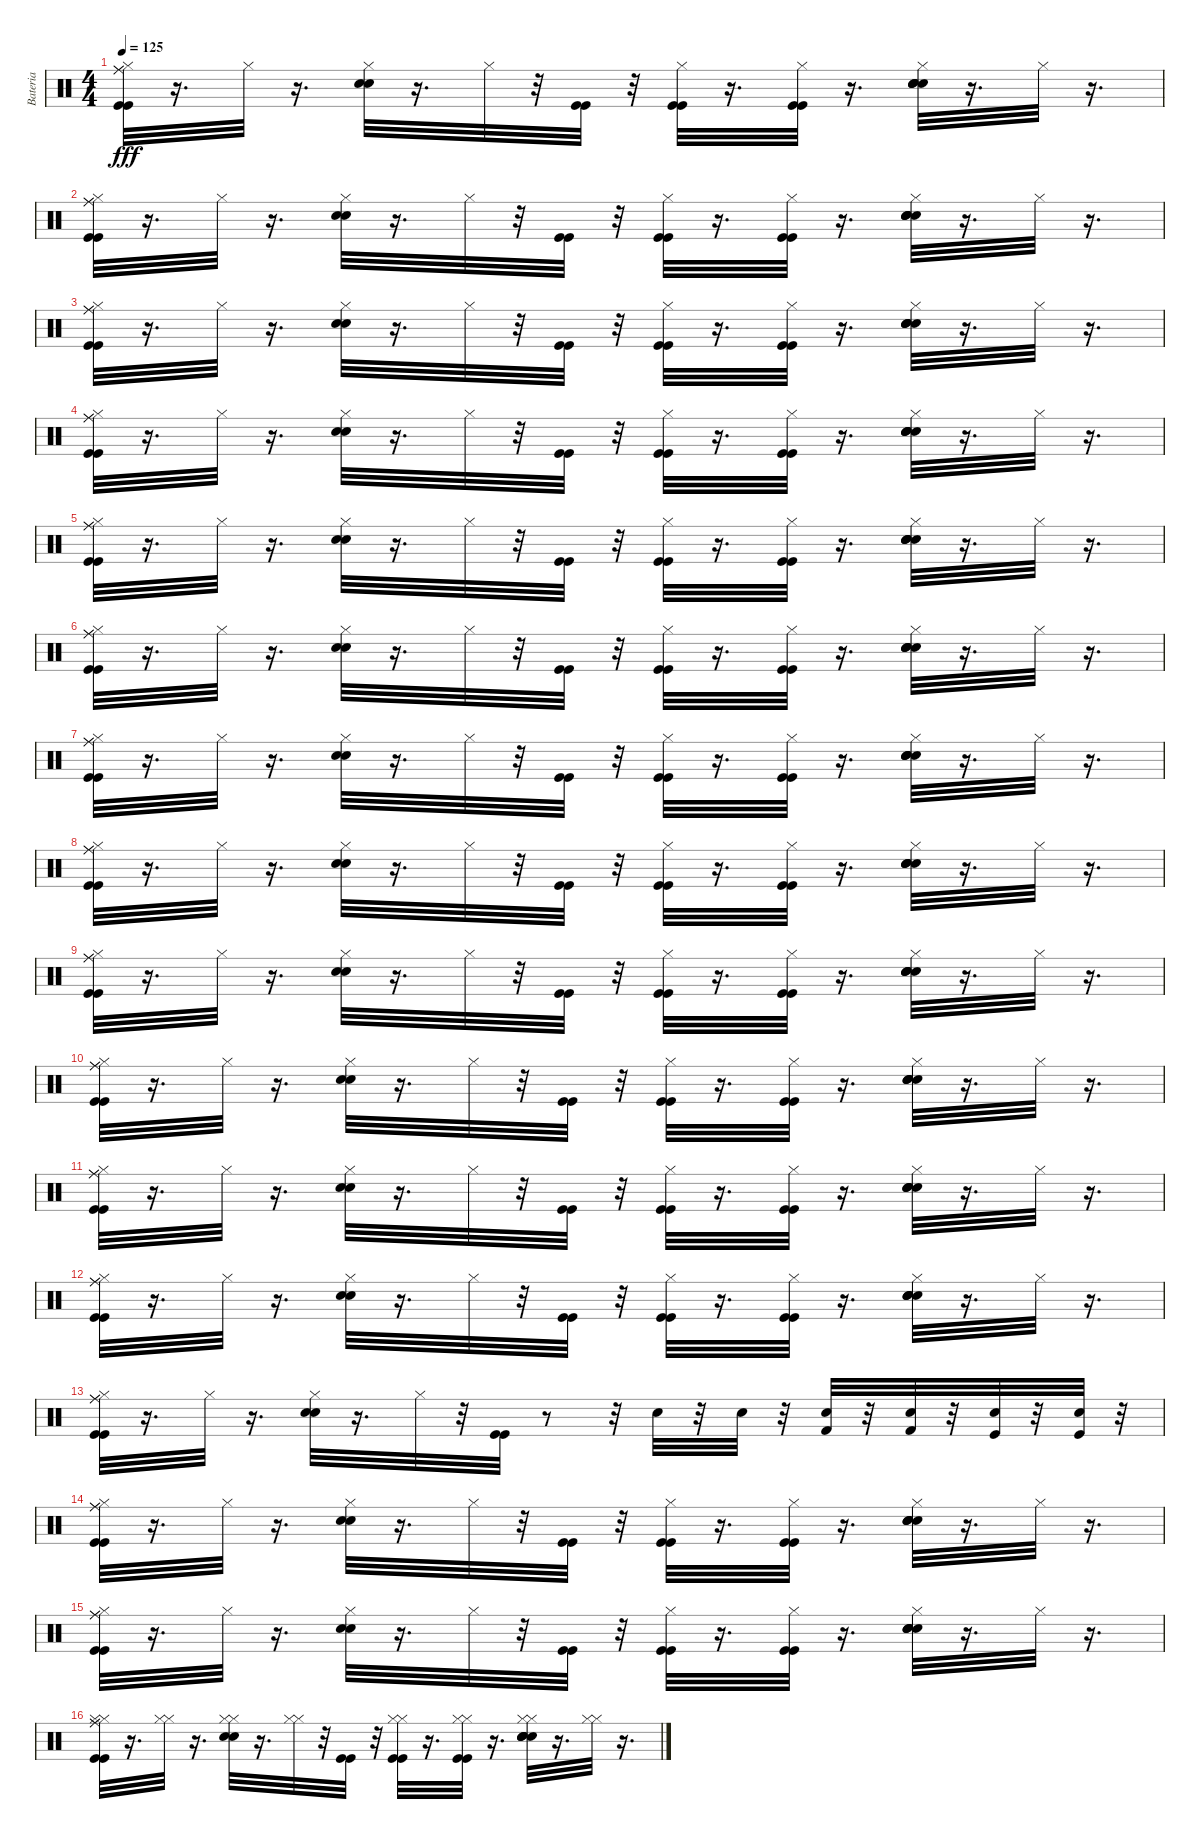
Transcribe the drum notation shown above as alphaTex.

\track ("Bateria" "Bateria") {instrument percussion}
\staff {score}
\articulation defaults
\ts (4 4)
\tempo 125
\clef neutral
\ks c
("Hi-Hat (closed)" "Kick (hit)" "Ride (middle)" "Kick (hit)" "Ride (middle)").32{dy fff} r.16{d} "Hi-Hat (closed)".32 r.16{d} ("Snare (hit) 2" "Electric Snare (hit)" "Hi-Hat (closed)").32 r.16{d} "Hi-Hat (closed)".32 r.32 ("Kick (hit)" "Kick (hit)").32 r.32 ("Hi-Hat (closed)" "Kick (hit)" "Kick (hit)").32 r.16{d} ("Hi-Hat (closed)" "Kick (hit)" "Kick (hit)").32 r.16{d} ("Hi-Hat (closed)" "Snare (hit) 2" "Electric Snare (hit)" "Snare (hit) 2" "Electric Snare (hit)").32 r.16{d} "Hi-Hat (closed)".32 r.16{d} |
("Hi-Hat (closed)" "Kick (hit)" "Ride (middle)" "Kick (hit)" "Ride (middle)").32 r.16{d} "Hi-Hat (closed)".32 r.16{d} ("Snare (hit) 2" "Electric Snare (hit)" "Hi-Hat (closed)").32 r.16{d} "Hi-Hat (closed)".32 r.32 ("Kick (hit)" "Kick (hit)").32 r.32 ("Hi-Hat (closed)" "Kick (hit)" "Kick (hit)").32 r.16{d} ("Hi-Hat (closed)" "Kick (hit)" "Kick (hit)").32 r.16{d} ("Hi-Hat (closed)" "Snare (hit) 2" "Electric Snare (hit)" "Snare (hit) 2" "Electric Snare (hit)").32 r.16{d} "Hi-Hat (closed)".32 r.16{d} |
("Hi-Hat (closed)" "Kick (hit)" "Ride (middle)" "Kick (hit)" "Ride (middle)").32 r.16{d} "Hi-Hat (closed)".32 r.16{d} ("Snare (hit) 2" "Electric Snare (hit)" "Hi-Hat (closed)").32 r.16{d} "Hi-Hat (closed)".32 r.32 ("Kick (hit)" "Kick (hit)").32 r.32 ("Hi-Hat (closed)" "Kick (hit)" "Kick (hit)").32 r.16{d} ("Hi-Hat (closed)" "Kick (hit)" "Kick (hit)").32 r.16{d} ("Hi-Hat (closed)" "Snare (hit) 2" "Electric Snare (hit)" "Snare (hit) 2" "Electric Snare (hit)").32 r.16{d} "Hi-Hat (closed)".32 r.16{d} |
("Hi-Hat (closed)" "Kick (hit)" "Ride (middle)" "Kick (hit)" "Ride (middle)").32 r.16{d} "Hi-Hat (closed)".32 r.16{d} ("Snare (hit) 2" "Electric Snare (hit)" "Hi-Hat (closed)").32 r.16{d} "Hi-Hat (closed)".32 r.32 ("Kick (hit)" "Kick (hit)").32 r.32 ("Hi-Hat (closed)" "Kick (hit)" "Kick (hit)").32 r.16{d} ("Hi-Hat (closed)" "Kick (hit)" "Kick (hit)").32 r.16{d} ("Hi-Hat (closed)" "Snare (hit) 2" "Electric Snare (hit)" "Snare (hit) 2" "Electric Snare (hit)").32 r.16{d} "Hi-Hat (closed)".32 r.16{d} |
("Hi-Hat (closed)" "Kick (hit)" "Ride (middle)" "Kick (hit)" "Ride (middle)").32 r.16{d} "Hi-Hat (closed)".32 r.16{d} ("Snare (hit) 2" "Electric Snare (hit)" "Hi-Hat (closed)").32 r.16{d} "Hi-Hat (closed)".32 r.32 ("Kick (hit)" "Kick (hit)").32 r.32 ("Hi-Hat (closed)" "Kick (hit)" "Kick (hit)").32 r.16{d} ("Hi-Hat (closed)" "Kick (hit)" "Kick (hit)").32 r.16{d} ("Hi-Hat (closed)" "Snare (hit) 2" "Electric Snare (hit)" "Snare (hit) 2" "Electric Snare (hit)").32 r.16{d} "Hi-Hat (closed)".32 r.16{d} |
("Hi-Hat (closed)" "Kick (hit)" "Ride (middle)" "Kick (hit)" "Ride (middle)").32 r.16{d} "Hi-Hat (closed)".32 r.16{d} ("Snare (hit) 2" "Electric Snare (hit)" "Hi-Hat (closed)").32 r.16{d} "Hi-Hat (closed)".32 r.32 ("Kick (hit)" "Kick (hit)").32 r.32 ("Hi-Hat (closed)" "Kick (hit)" "Kick (hit)").32 r.16{d} ("Hi-Hat (closed)" "Kick (hit)" "Kick (hit)").32 r.16{d} ("Hi-Hat (closed)" "Snare (hit) 2" "Electric Snare (hit)" "Snare (hit) 2" "Electric Snare (hit)").32 r.16{d} "Hi-Hat (closed)".32 r.16{d} |
("Hi-Hat (closed)" "Kick (hit)" "Ride (middle)" "Kick (hit)" "Ride (middle)").32 r.16{d} "Hi-Hat (closed)".32 r.16{d} ("Snare (hit) 2" "Electric Snare (hit)" "Hi-Hat (closed)").32 r.16{d} "Hi-Hat (closed)".32 r.32 ("Kick (hit)" "Kick (hit)").32 r.32 ("Hi-Hat (closed)" "Kick (hit)" "Kick (hit)").32 r.16{d} ("Hi-Hat (closed)" "Kick (hit)" "Kick (hit)").32 r.16{d} ("Hi-Hat (closed)" "Snare (hit) 2" "Electric Snare (hit)" "Snare (hit) 2" "Electric Snare (hit)").32 r.16{d} "Hi-Hat (closed)".32 r.16{d} |
("Hi-Hat (closed)" "Kick (hit)" "Ride (middle)" "Kick (hit)" "Ride (middle)").32 r.16{d} "Hi-Hat (closed)".32 r.16{d} ("Snare (hit) 2" "Electric Snare (hit)" "Hi-Hat (closed)").32 r.16{d} "Hi-Hat (closed)".32 r.32 ("Kick (hit)" "Kick (hit)").32 r.32 ("Hi-Hat (closed)" "Kick (hit)" "Kick (hit)").32 r.16{d} ("Hi-Hat (closed)" "Kick (hit)" "Kick (hit)").32 r.16{d} ("Hi-Hat (closed)" "Snare (hit) 2" "Electric Snare (hit)" "Snare (hit) 2" "Electric Snare (hit)").32 r.16{d} "Hi-Hat (closed)".32 r.16{d} |
("Hi-Hat (closed)" "Kick (hit)" "Ride (middle)" "Kick (hit)" "Ride (middle)").32 r.16{d} "Hi-Hat (closed)".32 r.16{d} ("Snare (hit) 2" "Electric Snare (hit)" "Hi-Hat (closed)").32 r.16{d} "Hi-Hat (closed)".32 r.32 ("Kick (hit)" "Kick (hit)").32 r.32 ("Hi-Hat (closed)" "Kick (hit)" "Kick (hit)").32 r.16{d} ("Hi-Hat (closed)" "Kick (hit)" "Kick (hit)").32 r.16{d} ("Hi-Hat (closed)" "Snare (hit) 2" "Electric Snare (hit)" "Snare (hit) 2" "Electric Snare (hit)").32 r.16{d} "Hi-Hat (closed)".32 r.16{d} |
("Hi-Hat (closed)" "Kick (hit)" "Ride (middle)" "Kick (hit)" "Ride (middle)").32 r.16{d} "Hi-Hat (closed)".32 r.16{d} ("Snare (hit) 2" "Electric Snare (hit)" "Hi-Hat (closed)").32 r.16{d} "Hi-Hat (closed)".32 r.32 ("Kick (hit)" "Kick (hit)").32 r.32 ("Hi-Hat (closed)" "Kick (hit)" "Kick (hit)").32 r.16{d} ("Hi-Hat (closed)" "Kick (hit)" "Kick (hit)").32 r.16{d} ("Hi-Hat (closed)" "Snare (hit) 2" "Electric Snare (hit)" "Snare (hit) 2" "Electric Snare (hit)").32 r.16{d} "Hi-Hat (closed)".32 r.16{d} |
("Hi-Hat (closed)" "Kick (hit)" "Ride (middle)" "Kick (hit)" "Ride (middle)").32 r.16{d} "Hi-Hat (closed)".32 r.16{d} ("Snare (hit) 2" "Electric Snare (hit)" "Hi-Hat (closed)").32 r.16{d} "Hi-Hat (closed)".32 r.32 ("Kick (hit)" "Kick (hit)").32 r.32 ("Hi-Hat (closed)" "Kick (hit)" "Kick (hit)").32 r.16{d} ("Hi-Hat (closed)" "Kick (hit)" "Kick (hit)").32 r.16{d} ("Hi-Hat (closed)" "Snare (hit) 2" "Electric Snare (hit)" "Snare (hit) 2" "Electric Snare (hit)").32 r.16{d} "Hi-Hat (closed)".32 r.16{d} |
("Hi-Hat (closed)" "Kick (hit)" "Ride (middle)" "Kick (hit)" "Ride (middle)").32 r.16{d} "Hi-Hat (closed)".32 r.16{d} ("Snare (hit) 2" "Electric Snare (hit)" "Hi-Hat (closed)").32 r.16{d} "Hi-Hat (closed)".32 r.32 ("Kick (hit)" "Kick (hit)").32 r.32 ("Hi-Hat (closed)" "Kick (hit)" "Kick (hit)").32 r.16{d} ("Hi-Hat (closed)" "Kick (hit)" "Kick (hit)").32 r.16{d} ("Hi-Hat (closed)" "Snare (hit) 2" "Electric Snare (hit)" "Snare (hit) 2" "Electric Snare (hit)").32 r.16{d} "Hi-Hat (closed)".32 r.16{d} |
("Hi-Hat (closed)" "Kick (hit)" "Ride (middle)" "Kick (hit)" "Ride (middle)").32 r.16{d} "Hi-Hat (closed)".32 r.16{d} ("Snare (hit) 2" "Electric Snare (hit)" "Hi-Hat (closed)").32 r.16{d} "Hi-Hat (closed)".32 r.32 ("Kick (hit)" "Kick (hit)").32 r.8 r.32 "Electric Snare (hit)".32 r.32 "Electric Snare (hit)".32 r.32 ("Kick (hit) 2" "Electric Snare (hit)").32 r.32 ("Kick (hit) 2" "Electric Snare (hit)").32 r.32 ("Snare (hit) 2" "Kick (hit)").32 r.32 ("Snare (hit) 2" "Kick (hit)").32 r.32 |
("Hi-Hat (closed)" "Kick (hit)" "Ride (middle)" "Kick (hit)" "Ride (middle)").32 r.16{d} "Hi-Hat (closed)".32 r.16{d} ("Snare (hit) 2" "Electric Snare (hit)" "Hi-Hat (closed)").32 r.16{d} "Hi-Hat (closed)".32 r.32 ("Kick (hit)" "Kick (hit)").32 r.32 ("Hi-Hat (closed)" "Kick (hit)" "Kick (hit)").32 r.16{d} ("Hi-Hat (closed)" "Kick (hit)" "Kick (hit)").32 r.16{d} ("Hi-Hat (closed)" "Snare (hit) 2" "Electric Snare (hit)" "Snare (hit) 2" "Electric Snare (hit)").32 r.16{d} "Hi-Hat (closed)".32 r.16{d} |
("Hi-Hat (closed)" "Kick (hit)" "Ride (middle)" "Kick (hit)" "Ride (middle)").32 r.16{d} "Hi-Hat (closed)".32 r.16{d} ("Snare (hit) 2" "Electric Snare (hit)" "Hi-Hat (closed)").32 r.16{d} "Hi-Hat (closed)".32 r.32 ("Kick (hit)" "Kick (hit)").32 r.32 ("Hi-Hat (closed)" "Kick (hit)" "Kick (hit)").32 r.16{d} ("Hi-Hat (closed)" "Kick (hit)" "Kick (hit)").32 r.16{d} ("Hi-Hat (closed)" "Snare (hit) 2" "Electric Snare (hit)" "Snare (hit) 2" "Electric Snare (hit)").32 r.16{d} "Hi-Hat (closed)".32 r.16{d} |
("Kick (hit)" "Hi-Hat (closed)" "Ride (middle)" "Kick (hit)" "Hi-Hat (closed)" "Ride (middle)").32 r.16{d} ("Hi-Hat (closed)" "Hi-Hat (closed)").32 r.16{d} ("Snare (hit) 2" "Electric Snare (hit)" "Hi-Hat (closed)" "Hi-Hat (closed)").32 r.16{d} ("Hi-Hat (closed)" "Hi-Hat (closed)").32 r.32 ("Kick (hit)" "Kick (hit)").32 r.32 ("Kick (hit)" "Hi-Hat (closed)" "Kick (hit)" "Hi-Hat (closed)").32 r.16{d} ("Kick (hit)" "Hi-Hat (closed)" "Kick (hit)" "Hi-Hat (closed)").32 r.16{d} ("Snare (hit) 2" "Electric Snare (hit)" "Hi-Hat (closed)" "Snare (hit) 2" "Electric Snare (hit)" "Hi-Hat (closed)").32 r.16{d} ("Hi-Hat (closed)" "Hi-Hat (closed)").32 r.16{d}
